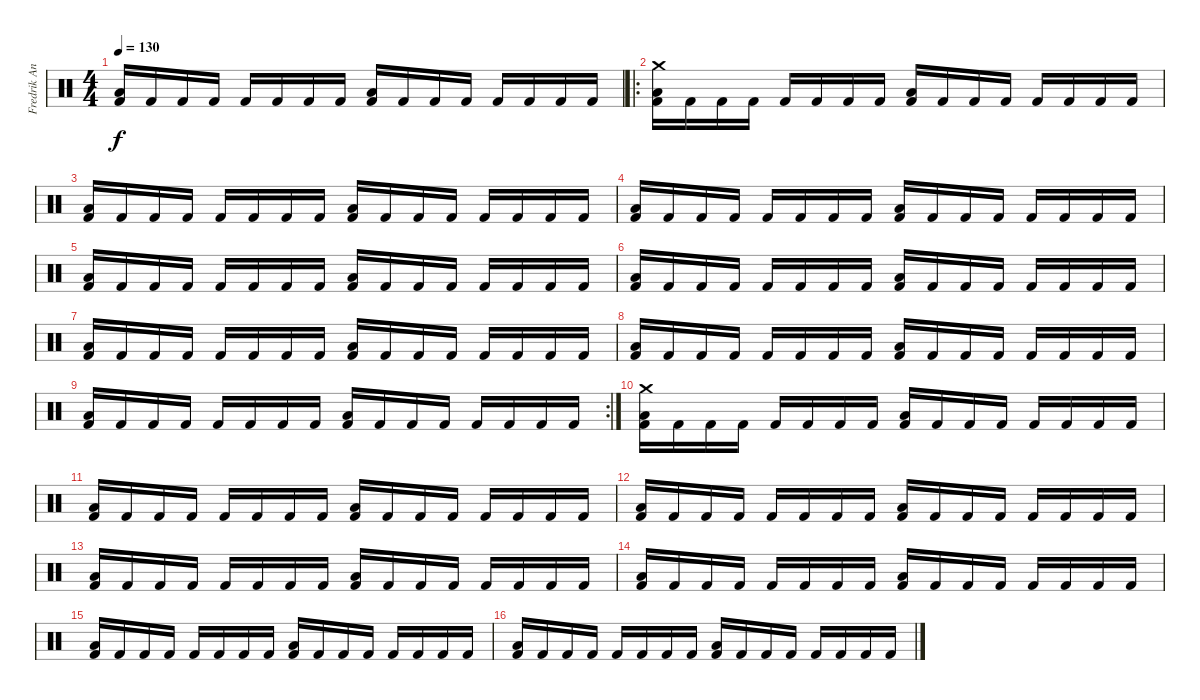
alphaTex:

\track ("Fredrik Andersson" "Fredrik An") {instrument percussion}
\staff {score}
\articulation defaults
\ts (4 4)
\tempo 130
\clef neutral
\ks c
("Low Floor Tom (hit)" "Kick (hit) 2").16{dy f} "Kick (hit) 2".16 "Kick (hit) 2".16 "Kick (hit) 2".16 "Kick (hit) 2".16 "Kick (hit) 2".16 "Kick (hit) 2".16 "Kick (hit) 2".16 ("Low Floor Tom (hit)" "Kick (hit) 2").16 "Kick (hit) 2".16 "Kick (hit) 2".16 "Kick (hit) 2".16 "Kick (hit) 2".16 "Kick (hit) 2".16 "Kick (hit) 2".16 "Kick (hit) 2".16 |
\ro
("Crash medium (hit)" "Low Floor Tom (hit)" "Kick (hit) 2").16 "Kick (hit) 2".16 "Kick (hit) 2".16 "Kick (hit) 2".16 "Kick (hit) 2".16 "Kick (hit) 2".16 "Kick (hit) 2".16 "Kick (hit) 2".16 ("Low Floor Tom (hit)" "Kick (hit) 2").16 "Kick (hit) 2".16 "Kick (hit) 2".16 "Kick (hit) 2".16 "Kick (hit) 2".16 "Kick (hit) 2".16 "Kick (hit) 2".16 "Kick (hit) 2".16 |
("Low Floor Tom (hit)" "Kick (hit) 2").16 "Kick (hit) 2".16 "Kick (hit) 2".16 "Kick (hit) 2".16 "Kick (hit) 2".16 "Kick (hit) 2".16 "Kick (hit) 2".16 "Kick (hit) 2".16 ("Low Floor Tom (hit)" "Kick (hit) 2").16 "Kick (hit) 2".16 "Kick (hit) 2".16 "Kick (hit) 2".16 "Kick (hit) 2".16 "Kick (hit) 2".16 "Kick (hit) 2".16 "Kick (hit) 2".16 |
("Low Floor Tom (hit)" "Kick (hit) 2").16 "Kick (hit) 2".16 "Kick (hit) 2".16 "Kick (hit) 2".16 "Kick (hit) 2".16 "Kick (hit) 2".16 "Kick (hit) 2".16 "Kick (hit) 2".16 ("Low Floor Tom (hit)" "Kick (hit) 2").16 "Kick (hit) 2".16 "Kick (hit) 2".16 "Kick (hit) 2".16 "Kick (hit) 2".16 "Kick (hit) 2".16 "Kick (hit) 2".16 "Kick (hit) 2".16 |
("Low Floor Tom (hit)" "Kick (hit) 2").16 "Kick (hit) 2".16 "Kick (hit) 2".16 "Kick (hit) 2".16 "Kick (hit) 2".16 "Kick (hit) 2".16 "Kick (hit) 2".16 "Kick (hit) 2".16 ("Low Floor Tom (hit)" "Kick (hit) 2").16 "Kick (hit) 2".16 "Kick (hit) 2".16 "Kick (hit) 2".16 "Kick (hit) 2".16 "Kick (hit) 2".16 "Kick (hit) 2".16 "Kick (hit) 2".16 |
("Low Floor Tom (hit)" "Kick (hit) 2").16 "Kick (hit) 2".16 "Kick (hit) 2".16 "Kick (hit) 2".16 "Kick (hit) 2".16 "Kick (hit) 2".16 "Kick (hit) 2".16 "Kick (hit) 2".16 ("Low Floor Tom (hit)" "Kick (hit) 2").16 "Kick (hit) 2".16 "Kick (hit) 2".16 "Kick (hit) 2".16 "Kick (hit) 2".16 "Kick (hit) 2".16 "Kick (hit) 2".16 "Kick (hit) 2".16 |
("Low Floor Tom (hit)" "Kick (hit) 2").16 "Kick (hit) 2".16 "Kick (hit) 2".16 "Kick (hit) 2".16 "Kick (hit) 2".16 "Kick (hit) 2".16 "Kick (hit) 2".16 "Kick (hit) 2".16 ("Low Floor Tom (hit)" "Kick (hit) 2").16 "Kick (hit) 2".16 "Kick (hit) 2".16 "Kick (hit) 2".16 "Kick (hit) 2".16 "Kick (hit) 2".16 "Kick (hit) 2".16 "Kick (hit) 2".16 |
("Low Floor Tom (hit)" "Kick (hit) 2").16 "Kick (hit) 2".16 "Kick (hit) 2".16 "Kick (hit) 2".16 "Kick (hit) 2".16 "Kick (hit) 2".16 "Kick (hit) 2".16 "Kick (hit) 2".16 ("Low Floor Tom (hit)" "Kick (hit) 2").16 "Kick (hit) 2".16 "Kick (hit) 2".16 "Kick (hit) 2".16 "Kick (hit) 2".16 "Kick (hit) 2".16 "Kick (hit) 2".16 "Kick (hit) 2".16 |
\rc 2
("Low Floor Tom (hit)" "Kick (hit) 2").16 "Kick (hit) 2".16 "Kick (hit) 2".16 "Kick (hit) 2".16 "Kick (hit) 2".16 "Kick (hit) 2".16 "Kick (hit) 2".16 "Kick (hit) 2".16 ("Low Floor Tom (hit)" "Kick (hit) 2").16 "Kick (hit) 2".16 "Kick (hit) 2".16 "Kick (hit) 2".16 "Kick (hit) 2".16 "Kick (hit) 2".16 "Kick (hit) 2".16 "Kick (hit) 2".16 |
("Crash medium (hit)" "Low Floor Tom (hit)" "Kick (hit) 2").16 "Kick (hit) 2".16 "Kick (hit) 2".16 "Kick (hit) 2".16 "Kick (hit) 2".16 "Kick (hit) 2".16 "Kick (hit) 2".16 "Kick (hit) 2".16 ("Low Floor Tom (hit)" "Kick (hit) 2").16 "Kick (hit) 2".16 "Kick (hit) 2".16 "Kick (hit) 2".16 "Kick (hit) 2".16 "Kick (hit) 2".16 "Kick (hit) 2".16 "Kick (hit) 2".16 |
("Low Floor Tom (hit)" "Kick (hit) 2").16 "Kick (hit) 2".16 "Kick (hit) 2".16 "Kick (hit) 2".16 "Kick (hit) 2".16 "Kick (hit) 2".16 "Kick (hit) 2".16 "Kick (hit) 2".16 ("Low Floor Tom (hit)" "Kick (hit) 2").16 "Kick (hit) 2".16 "Kick (hit) 2".16 "Kick (hit) 2".16 "Kick (hit) 2".16 "Kick (hit) 2".16 "Kick (hit) 2".16 "Kick (hit) 2".16 |
("Low Floor Tom (hit)" "Kick (hit) 2").16 "Kick (hit) 2".16 "Kick (hit) 2".16 "Kick (hit) 2".16 "Kick (hit) 2".16 "Kick (hit) 2".16 "Kick (hit) 2".16 "Kick (hit) 2".16 ("Low Floor Tom (hit)" "Kick (hit) 2").16 "Kick (hit) 2".16 "Kick (hit) 2".16 "Kick (hit) 2".16 "Kick (hit) 2".16 "Kick (hit) 2".16 "Kick (hit) 2".16 "Kick (hit) 2".16 |
("Low Floor Tom (hit)" "Kick (hit) 2").16 "Kick (hit) 2".16 "Kick (hit) 2".16 "Kick (hit) 2".16 "Kick (hit) 2".16 "Kick (hit) 2".16 "Kick (hit) 2".16 "Kick (hit) 2".16 ("Low Floor Tom (hit)" "Kick (hit) 2").16 "Kick (hit) 2".16 "Kick (hit) 2".16 "Kick (hit) 2".16 "Kick (hit) 2".16 "Kick (hit) 2".16 "Kick (hit) 2".16 "Kick (hit) 2".16 |
("Low Floor Tom (hit)" "Kick (hit) 2").16 "Kick (hit) 2".16 "Kick (hit) 2".16 "Kick (hit) 2".16 "Kick (hit) 2".16 "Kick (hit) 2".16 "Kick (hit) 2".16 "Kick (hit) 2".16 ("Low Floor Tom (hit)" "Kick (hit) 2").16 "Kick (hit) 2".16 "Kick (hit) 2".16 "Kick (hit) 2".16 "Kick (hit) 2".16 "Kick (hit) 2".16 "Kick (hit) 2".16 "Kick (hit) 2".16 |
("Low Floor Tom (hit)" "Kick (hit) 2").16 "Kick (hit) 2".16 "Kick (hit) 2".16 "Kick (hit) 2".16 "Kick (hit) 2".16 "Kick (hit) 2".16 "Kick (hit) 2".16 "Kick (hit) 2".16 ("Low Floor Tom (hit)" "Kick (hit) 2").16 "Kick (hit) 2".16 "Kick (hit) 2".16 "Kick (hit) 2".16 "Kick (hit) 2".16 "Kick (hit) 2".16 "Kick (hit) 2".16 "Kick (hit) 2".16 |
("Low Floor Tom (hit)" "Kick (hit) 2").16 "Kick (hit) 2".16 "Kick (hit) 2".16 "Kick (hit) 2".16 "Kick (hit) 2".16 "Kick (hit) 2".16 "Kick (hit) 2".16 "Kick (hit) 2".16 ("Low Floor Tom (hit)" "Kick (hit) 2").16 "Kick (hit) 2".16 "Kick (hit) 2".16 "Kick (hit) 2".16 "Kick (hit) 2".16 "Kick (hit) 2".16 "Kick (hit) 2".16 "Kick (hit) 2".16
